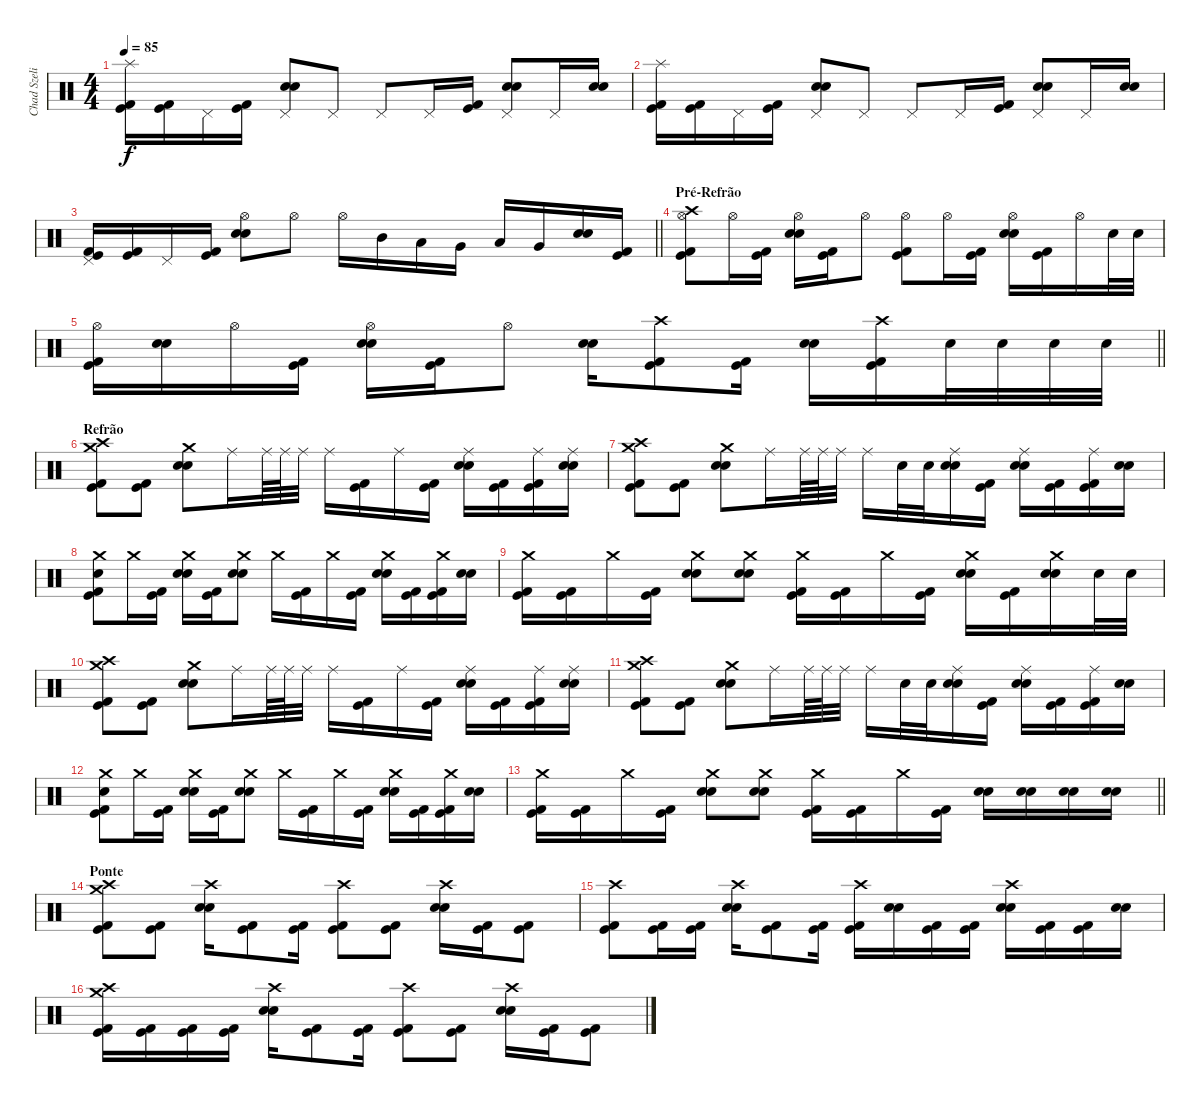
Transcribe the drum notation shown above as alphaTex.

\track ("Chad Szeliga" "Chad Szeli") {instrument percussion}
\staff {score}
\articulation defaults
\ts (4 4)
\tempo 85
\clef neutral
\ks c
("Splash (hit)" "Kick (hit) 2" "Kick (hit)").16{dy f} ("Kick (hit) 2" "Kick (hit)").16 "Pedal Hi-Hat (hit)".16 ("Kick (hit) 2" "Kick (hit)").16 ("Snare (hit) 2" "Snare (hit) 2" "Pedal Hi-Hat (hit)").8 "Pedal Hi-Hat (hit)".8 "Pedal Hi-Hat (hit)".8 "Pedal Hi-Hat (hit)".16 ("Kick (hit) 2" "Kick (hit)").16 ("Snare (hit) 2" "Snare (hit) 2" "Pedal Hi-Hat (hit)").8 "Pedal Hi-Hat (hit)".16 ("Snare (hit) 2" "Snare (hit) 2").16 |
("Splash (hit)" "Kick (hit) 2" "Kick (hit)").16 ("Kick (hit) 2" "Kick (hit)").16 "Pedal Hi-Hat (hit)".16 ("Kick (hit) 2" "Kick (hit)").16 ("Snare (hit) 2" "Snare (hit) 2" "Pedal Hi-Hat (hit)").8 "Pedal Hi-Hat (hit)".8 "Pedal Hi-Hat (hit)".8 "Pedal Hi-Hat (hit)".16 ("Kick (hit) 2" "Kick (hit)").16 ("Snare (hit) 2" "Snare (hit) 2" "Pedal Hi-Hat (hit)").8 "Pedal Hi-Hat (hit)".16 ("Snare (hit) 2" "Snare (hit) 2").16 |
\barLineRight lightlight
("Kick (hit) 2" "Kick (hit)" "Pedal Hi-Hat (hit)").16 ("Kick (hit) 2" "Kick (hit)").16 "Pedal Hi-Hat (hit)".16 ("Kick (hit) 2" "Kick (hit)").16 ("Snare (hit) 2" "Snare (hit) 2" "Hi-Hat (open)").8 "Hi-Hat (open)".8 "Hi-Hat (open)".16 "Mid Tom (hit)".16 "Low Tom (hit)".16 "Very Low Tom (hit)".16 "Low Tom (hit)".16 "Very Low Tom (hit)".16 ("Snare (hit) 2" "Snare (hit) 2").16 ("Kick (hit) 2" "Kick (hit)").16 |
\section ("" "Pré-Refrão")
("Crash high (hit)" "Kick (hit) 2" "Kick (hit)" "Hi-Hat (open)").8 "Hi-Hat (open)".16 ("Kick (hit) 2" "Kick (hit)").16 ("Snare (hit) 2" "Snare (hit) 2" "Hi-Hat (open)").16 ("Kick (hit) 2" "Kick (hit)").16 "Hi-Hat (open)".8 ("Kick (hit) 2" "Kick (hit)" "Hi-Hat (open)").8 "Hi-Hat (open)".16 ("Kick (hit) 2" "Kick (hit)").16 ("Snare (hit) 2" "Snare (hit) 2" "Hi-Hat (open)").16 ("Kick (hit) 2" "Kick (hit)").16 "Hi-Hat (open)".16 "Snare (hit) 2".32 "Snare (hit) 2".32 |
\barLineRight lightlight
("Kick (hit) 2" "Kick (hit)" "Hi-Hat (open)").16 ("Snare (hit) 2" "Snare (hit) 2").16 "Hi-Hat (open)".16 ("Kick (hit) 2" "Kick (hit)").16 ("Snare (hit) 2" "Snare (hit) 2" "Hi-Hat (open)").16 ("Kick (hit) 2" "Kick (hit)").16 "Hi-Hat (open)".8 ("Snare (hit) 2" "Snare (hit) 2").16 ("Crash high (hit)" "Kick (hit) 2" "Kick (hit)").8 ("Kick (hit) 2" "Kick (hit)").16 ("Snare (hit) 2" "Snare (hit) 2").16 ("Crash high (hit)" "Kick (hit) 2" "Kick (hit)").16 "Snare (hit) 2".32 "Snare (hit) 2".32 "Snare (hit) 2".32 "Snare (hit) 2".32 |
\section ("" "Refrão")
("Crash high (hit)" "Kick (hit) 2" "Kick (hit)" "Crash medium (hit)").8 ("Kick (hit) 2" "Kick (hit)").8 ("Crash medium (hit)" "Snare (hit) 2" "Snare (hit) 2").8 "Ride (middle)".16 "Ride (middle)".64 "Ride (middle)".64 "Ride (middle)".32 "Ride (middle)".16 ("Kick (hit) 2" "Kick (hit)").16 "Ride (middle)".16 ("Kick (hit) 2" "Kick (hit)").16 ("Ride (middle)" "Snare (hit) 2" "Snare (hit) 2").16 ("Kick (hit) 2" "Kick (hit)").16 ("Ride (middle)" "Kick (hit) 2" "Kick (hit)").16 ("Ride (middle)" "Snare (hit) 2" "Snare (hit) 2").16 |
("Crash high (hit)" "Kick (hit) 2" "Kick (hit)" "Crash medium (hit)").8 ("Kick (hit) 2" "Kick (hit)").8 ("Crash medium (hit)" "Snare (hit) 2" "Snare (hit) 2").8 "Ride (middle)".16 "Ride (middle)".64 "Ride (middle)".64 "Ride (middle)".32 "Ride (middle)".16 "Snare (hit) 2".32 "Snare (hit) 2".32 ("Ride (middle)" "Snare (hit) 2" "Snare (hit) 2").16 ("Kick (hit) 2" "Kick (hit)").16 ("Ride (middle)" "Snare (hit) 2" "Snare (hit) 2").16 ("Kick (hit) 2" "Kick (hit)").16 ("Ride (middle)" "Kick (hit) 2" "Kick (hit)").16 ("Snare (hit) 2" "Snare (hit) 2").16 |
("Snare (hit)" "Kick (hit) 2" "Kick (hit)" "Crash medium (hit)").8 "Crash medium (hit)".16 ("Kick (hit) 2" "Kick (hit)").16 ("Crash medium (hit)" "Snare (hit) 2" "Snare (hit) 2").16 ("Kick (hit) 2" "Kick (hit)").16 ("Crash medium (hit)" "Snare (hit) 2" "Snare (hit) 2").8 "Crash medium (hit)".16 ("Kick (hit) 2" "Kick (hit)").16 "Crash medium (hit)".16 ("Kick (hit) 2" "Kick (hit)").16 ("Crash medium (hit)" "Snare (hit) 2" "Snare (hit) 2").16 ("Kick (hit) 2" "Kick (hit)").16 ("Crash medium (hit)" "Kick (hit) 2" "Kick (hit)").16 ("Snare (hit) 2" "Snare (hit) 2").16 |
("Crash medium (hit)" "Kick (hit) 2" "Kick (hit)").16 ("Kick (hit) 2" "Kick (hit)").16 "Crash medium (hit)".16 ("Kick (hit) 2" "Kick (hit)").16 ("Crash medium (hit)" "Snare (hit) 2" "Snare (hit) 2").8 ("Crash medium (hit)" "Snare (hit) 2" "Snare (hit) 2").8 ("Crash medium (hit)" "Kick (hit) 2" "Kick (hit)").16 ("Kick (hit) 2" "Kick (hit)").16 "Crash medium (hit)".16 ("Kick (hit) 2" "Kick (hit)").16 ("Crash medium (hit)" "Snare (hit) 2" "Snare (hit) 2").16 ("Kick (hit) 2" "Kick (hit)").16 ("Crash medium (hit)" "Snare (hit) 2" "Snare (hit) 2").16 "Snare (hit) 2".32 "Snare (hit) 2".32 |
("Crash high (hit)" "Kick (hit) 2" "Kick (hit)" "Crash medium (hit)").8 ("Kick (hit) 2" "Kick (hit)").8 ("Crash medium (hit)" "Snare (hit) 2" "Snare (hit) 2").8 "Ride (middle)".16 "Ride (middle)".64 "Ride (middle)".64 "Ride (middle)".32 "Ride (middle)".16 ("Kick (hit) 2" "Kick (hit)").16 "Ride (middle)".16 ("Kick (hit) 2" "Kick (hit)").16 ("Ride (middle)" "Snare (hit) 2" "Snare (hit) 2").16 ("Kick (hit) 2" "Kick (hit)").16 ("Ride (middle)" "Kick (hit) 2" "Kick (hit)").16 ("Ride (middle)" "Snare (hit) 2" "Snare (hit) 2").16 |
("Crash high (hit)" "Kick (hit) 2" "Kick (hit)" "Crash medium (hit)").8 ("Kick (hit) 2" "Kick (hit)").8 ("Crash medium (hit)" "Snare (hit) 2" "Snare (hit) 2").8 "Ride (middle)".16 "Ride (middle)".64 "Ride (middle)".64 "Ride (middle)".32 "Ride (middle)".16 "Snare (hit) 2".32 "Snare (hit) 2".32 ("Ride (middle)" "Snare (hit) 2" "Snare (hit) 2").16 ("Kick (hit) 2" "Kick (hit)").16 ("Ride (middle)" "Snare (hit) 2" "Snare (hit) 2").16 ("Kick (hit) 2" "Kick (hit)").16 ("Ride (middle)" "Kick (hit) 2" "Kick (hit)").16 ("Snare (hit) 2" "Snare (hit) 2").16 |
("Snare (hit)" "Kick (hit) 2" "Kick (hit)" "Crash medium (hit)").8 "Crash medium (hit)".16 ("Kick (hit) 2" "Kick (hit)").16 ("Crash medium (hit)" "Snare (hit) 2" "Snare (hit) 2").16 ("Kick (hit) 2" "Kick (hit)").16 ("Crash medium (hit)" "Snare (hit) 2" "Snare (hit) 2").8 "Crash medium (hit)".16 ("Kick (hit) 2" "Kick (hit)").16 "Crash medium (hit)".16 ("Kick (hit) 2" "Kick (hit)").16 ("Crash medium (hit)" "Snare (hit) 2" "Snare (hit) 2").16 ("Kick (hit) 2" "Kick (hit)").16 ("Crash medium (hit)" "Kick (hit) 2" "Kick (hit)").16 ("Snare (hit) 2" "Snare (hit) 2").16 |
\barLineRight lightlight
("Crash medium (hit)" "Kick (hit) 2" "Kick (hit)").16 ("Kick (hit) 2" "Kick (hit)").16 "Crash medium (hit)".16 ("Kick (hit) 2" "Kick (hit)").16 ("Crash medium (hit)" "Snare (hit) 2" "Snare (hit) 2").8 ("Crash medium (hit)" "Snare (hit) 2" "Snare (hit) 2").8 ("Crash medium (hit)" "Kick (hit) 2" "Kick (hit)").16 ("Kick (hit) 2" "Kick (hit)").16 "Crash medium (hit)".16 ("Kick (hit) 2" "Kick (hit)").16 ("Snare (hit) 2" "Snare (hit) 2").16 ("Snare (hit) 2" "Snare (hit) 2").16 ("Snare (hit) 2" "Snare (hit) 2").16 ("Snare (hit) 2" "Snare (hit) 2").16 |
\section ("" "Ponte")
("Crash high (hit)" "Kick (hit) 2" "Kick (hit)" "Crash medium (hit)").8 ("Kick (hit) 2" "Kick (hit)").8 ("Crash high (hit)" "Snare (hit) 2" "Snare (hit) 2").16 ("Kick (hit) 2" "Kick (hit)").8 ("Kick (hit) 2" "Kick (hit)").16 ("Crash high (hit)" "Kick (hit) 2" "Kick (hit)").8 ("Kick (hit) 2" "Kick (hit)").8 ("Crash high (hit)" "Snare (hit) 2" "Snare (hit) 2").16 ("Kick (hit) 2" "Kick (hit)").16 ("Kick (hit) 2" "Kick (hit)").8 |
("Crash high (hit)" "Kick (hit) 2" "Kick (hit)").8 ("Kick (hit) 2" "Kick (hit)").16 ("Kick (hit) 2" "Kick (hit)").16 ("Crash high (hit)" "Snare (hit) 2" "Snare (hit) 2").16 ("Kick (hit) 2" "Kick (hit)").8 ("Kick (hit) 2" "Kick (hit)").16 ("Crash high (hit)" "Kick (hit) 2" "Kick (hit)").16 ("Snare (hit) 2" "Snare (hit) 2").16 ("Kick (hit) 2" "Kick (hit)").16 ("Kick (hit) 2" "Kick (hit)").16 ("Crash high (hit)" "Snare (hit) 2" "Snare (hit) 2").16 ("Kick (hit) 2" "Kick (hit)").16 ("Kick (hit) 2" "Kick (hit)").16 ("Snare (hit) 2" "Snare (hit) 2").16 |
("Crash high (hit)" "Kick (hit) 2" "Kick (hit)" "Crash medium (hit)").16 ("Kick (hit) 2" "Kick (hit)").16 ("Kick (hit) 2" "Kick (hit)").16 ("Kick (hit) 2" "Kick (hit)").16 ("Crash high (hit)" "Snare (hit) 2" "Snare (hit) 2").16 ("Kick (hit) 2" "Kick (hit)").8 ("Kick (hit) 2" "Kick (hit)").16 ("Crash high (hit)" "Kick (hit) 2" "Kick (hit)").8 ("Kick (hit) 2" "Kick (hit)").8 ("Crash high (hit)" "Snare (hit) 2" "Snare (hit) 2").16 ("Kick (hit) 2" "Kick (hit)").16 ("Kick (hit) 2" "Kick (hit)").8
